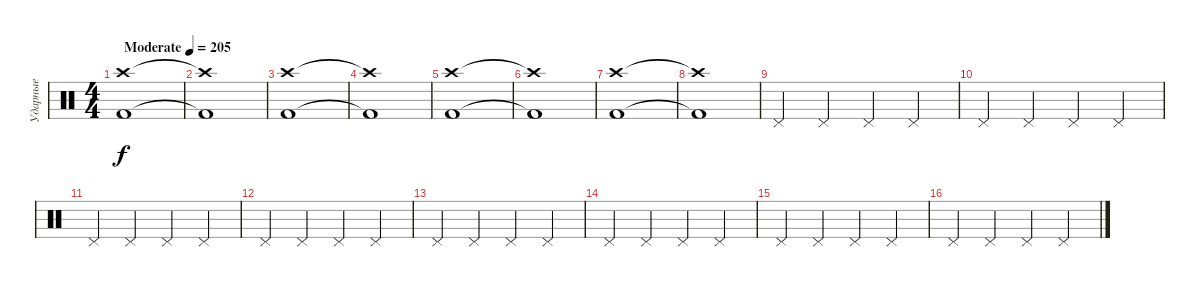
\track ("Ударные" "Ударные") {instrument percussion}
\staff {score}
\articulation defaults
\ts (4 4)
\tempo (205 "Moderate")
\clef neutral
\ks c
("Crash high (hit)" "Kick (hit) 2").1{dy f} |
("Crash high (hit)"{t} "Kick (hit) 2"{t}).1 |
("Crash high (hit)" "Kick (hit) 2").1 |
("Crash high (hit)"{t} "Kick (hit) 2"{t}).1 |
("Crash high (hit)" "Kick (hit) 2").1 |
("Crash high (hit)"{t} "Kick (hit) 2"{t}).1 |
("Crash high (hit)" "Kick (hit) 2").1 |
("Crash high (hit)"{t} "Kick (hit) 2"{t}).1 |
"Pedal Hi-Hat (hit)".4 "Pedal Hi-Hat (hit)".4 "Pedal Hi-Hat (hit)".4 "Pedal Hi-Hat (hit)".4 |
"Pedal Hi-Hat (hit)".4 "Pedal Hi-Hat (hit)".4 "Pedal Hi-Hat (hit)".4 "Pedal Hi-Hat (hit)".4 |
"Pedal Hi-Hat (hit)".4 "Pedal Hi-Hat (hit)".4 "Pedal Hi-Hat (hit)".4 "Pedal Hi-Hat (hit)".4 |
"Pedal Hi-Hat (hit)".4 "Pedal Hi-Hat (hit)".4 "Pedal Hi-Hat (hit)".4 "Pedal Hi-Hat (hit)".4 |
"Pedal Hi-Hat (hit)".4 "Pedal Hi-Hat (hit)".4 "Pedal Hi-Hat (hit)".4 "Pedal Hi-Hat (hit)".4 |
"Pedal Hi-Hat (hit)".4 "Pedal Hi-Hat (hit)".4 "Pedal Hi-Hat (hit)".4 "Pedal Hi-Hat (hit)".4 |
"Pedal Hi-Hat (hit)".4 "Pedal Hi-Hat (hit)".4 "Pedal Hi-Hat (hit)".4 "Pedal Hi-Hat (hit)".4 |
"Pedal Hi-Hat (hit)".4 "Pedal Hi-Hat (hit)".4 "Pedal Hi-Hat (hit)".4 "Pedal Hi-Hat (hit)".4
